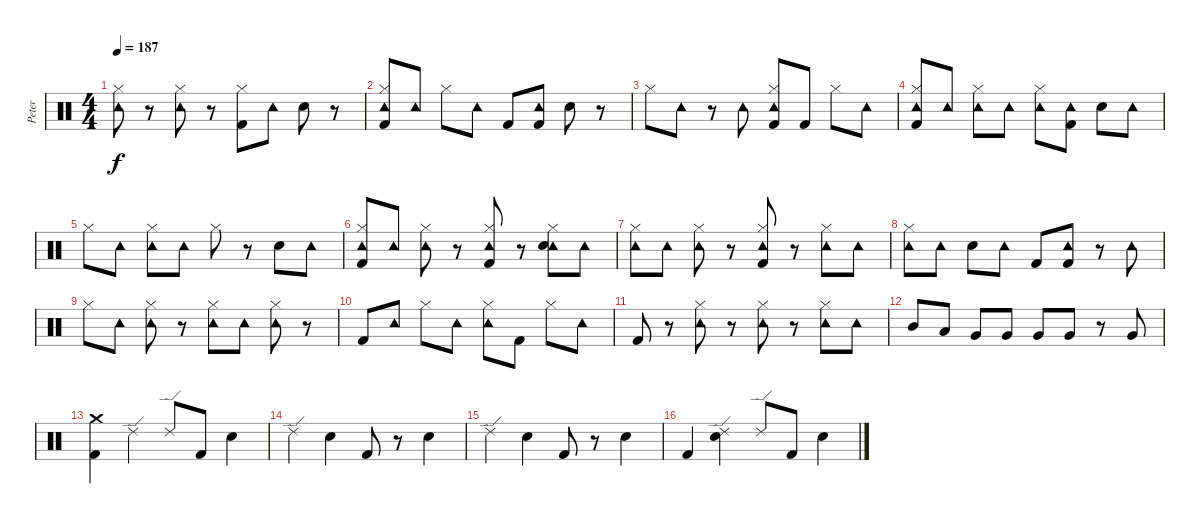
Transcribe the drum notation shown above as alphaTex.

\track ("Peter" "Peter") {instrument percussion}
\staff {score}
\articulation defaults
\ts (4 4)
\tempo 187
\clef neutral
\ks c
("Tambourine (hit)" "Hi-Hat (closed)").8{dy f} r.8 ("Tambourine (hit)" "Hi-Hat (closed)").8 r.8 ("Hi-Hat (closed)" "Kick (hit) 2").8 "Tambourine (hit)".8 "Electric Snare (hit)".8 r.8 |
("Tambourine (hit)" "Hi-Hat (closed)" "Kick (hit) 2").8 "Tambourine (hit)".8 "Hi-Hat (closed)".8 "Tambourine (hit)".8 "Kick (hit) 2".8 ("Tambourine (hit)" "Kick (hit) 2").8 "Electric Snare (hit)".8 r.8 |
"Hi-Hat (closed)".8 "Tambourine (hit)".8 r.8 "Tambourine (hit)".8 ("Tambourine (hit)" "Hi-Hat (closed)" "Kick (hit) 2").8 "Kick (hit) 2".8 "Hi-Hat (closed)".8 "Tambourine (hit)".8 |
("Tambourine (hit)" "Hi-Hat (closed)" "Kick (hit) 2").8 "Tambourine (hit)".8 ("Tambourine (hit)" "Hi-Hat (closed)").8 "Tambourine (hit)".8 ("Tambourine (hit)" "Hi-Hat (closed)").8 ("Tambourine (hit)" "Kick (hit) 2").8 "Electric Snare (hit)".8 "Tambourine (hit)".8 |
"Hi-Hat (closed)".8 "Tambourine (hit)".8 ("Tambourine (hit)" "Hi-Hat (closed)").8 "Tambourine (hit)".8 "Hi-Hat (closed)".8 r.8 "Electric Snare (hit)".8 "Tambourine (hit)".8 |
("Tambourine (hit)" "Hi-Hat (closed)" "Kick (hit) 2").8 "Tambourine (hit)".8 ("Tambourine (hit)" "Hi-Hat (closed)").8 r.8 ("Tambourine (hit)" "Hi-Hat (closed)" "Kick (hit) 2").8 r.8 ("Tambourine (hit)" "Hi-Hat (closed)" "Electric Snare (hit)").8 "Tambourine (hit)".8 |
("Tambourine (hit)" "Hi-Hat (closed)").8 "Tambourine (hit)".8 ("Tambourine (hit)" "Hi-Hat (closed)").8 r.8 ("Tambourine (hit)" "Hi-Hat (closed)" "Kick (hit) 2").8 r.8 ("Tambourine (hit)" "Hi-Hat (closed)").8 "Tambourine (hit)".8 |
("Tambourine (hit)" "Hi-Hat (closed)").8 "Tambourine (hit)".8 "Electric Snare (hit)".8 "Tambourine (hit)".8 "Kick (hit) 2".8 ("Tambourine (hit)" "Kick (hit) 2").8 r.8 "Tambourine (hit)".8 |
"Hi-Hat (closed)".8 "Tambourine (hit)".8 ("Tambourine (hit)" "Hi-Hat (closed)").8 r.8 ("Tambourine (hit)" "Hi-Hat (closed)").8 "Tambourine (hit)".8 ("Tambourine (hit)" "Hi-Hat (closed)").8 r.8 |
"Kick (hit) 2".8 "Tambourine (hit)".8 "Hi-Hat (closed)".8 "Tambourine (hit)".8 ("Tambourine (hit)" "Hi-Hat (closed)").8 "Kick (hit) 2".8 "Hi-Hat (closed)".8 "Tambourine (hit)".8 |
"Kick (hit) 2".8 r.8 ("Tambourine (hit)" "Hi-Hat (closed)").8 r.8 ("Tambourine (hit)" "Hi-Hat (closed)").8 r.8 ("Tambourine (hit)" "Hi-Hat (closed)").8 "Tambourine (hit)".8 |
"Mid Tom (hit)".8 "Low Tom (hit)".8 "Very Low Tom (hit)".8 "Very Low Tom (hit)".8 "Very Low Tom (hit)".8 "Very Low Tom (hit)".8 r.8 "Very Low Tom (hit)".8 |
("Crash medium (hit)" "Kick (hit) 2").4 "Ride (edge) 2".4 "Ride (edge) 2".8 "Kick (hit) 2".8 "Electric Snare (hit)".4 |
"Ride (edge) 2".4 "Electric Snare (hit)".4 "Kick (hit) 2".8 r.8 "Electric Snare (hit)".4 |
"Ride (edge) 2".4 "Electric Snare (hit)".4 "Kick (hit) 2".8 r.8 "Electric Snare (hit)".4 |
"Kick (hit) 2".4 ("Ride (edge) 2" "Electric Snare (hit)").4 "Ride (edge) 2".8 "Kick (hit) 2".8 "Electric Snare (hit)".4
